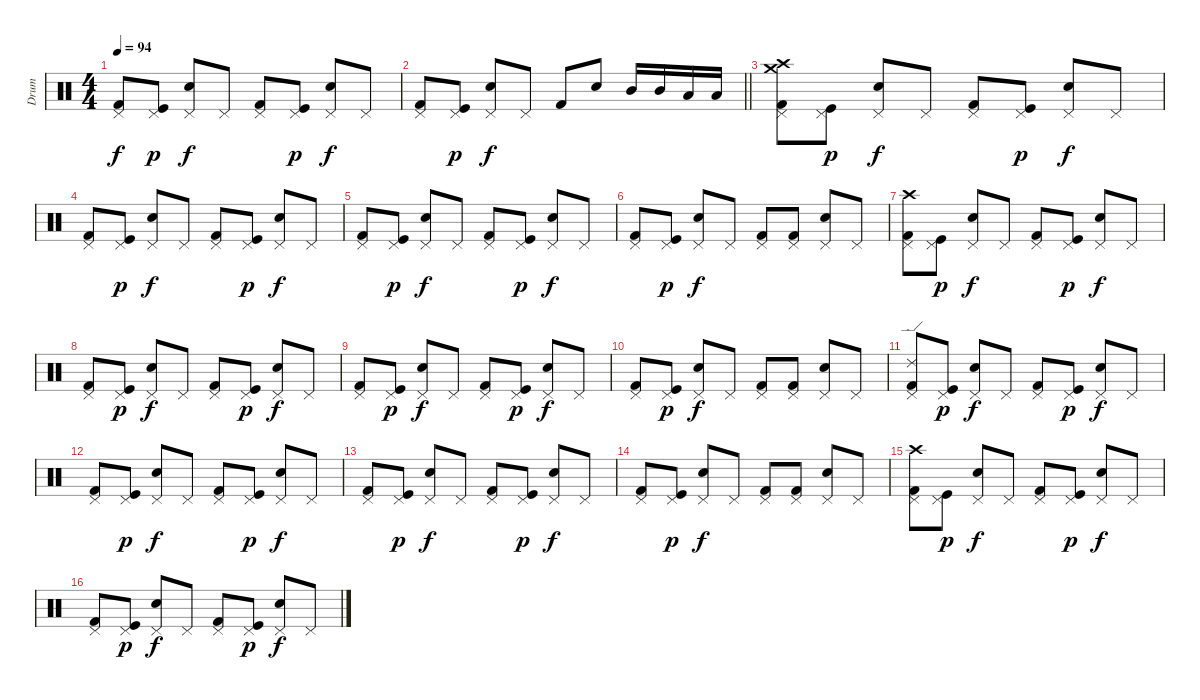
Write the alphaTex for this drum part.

\track ("Drum" "Drum") {instrument percussion}
\staff {score}
\articulation defaults
\ts (4 4)
\tempo 94
\clef neutral
\ks c
("Kick (hit) 2" "Pedal Hi-Hat (hit)").8{dy f} ("Kick (hit)" "Pedal Hi-Hat (hit)").8{dy p} ("Snare (hit) 2" "Pedal Hi-Hat (hit)").8{dy f} "Pedal Hi-Hat (hit)".8 ("Kick (hit) 2" "Pedal Hi-Hat (hit)").8 ("Kick (hit)" "Pedal Hi-Hat (hit)").8{dy p} ("Snare (hit) 2" "Pedal Hi-Hat (hit)").8{dy f} "Pedal Hi-Hat (hit)".8 |
\barLineRight lightlight
("Kick (hit) 2" "Pedal Hi-Hat (hit)").8 ("Kick (hit)" "Pedal Hi-Hat (hit)").8{dy p} ("Snare (hit) 2" "Pedal Hi-Hat (hit)").8{dy f} "Pedal Hi-Hat (hit)".8 "Kick (hit) 2".8 "Snare (hit) 2".8 "Mid Tom (hit)".16 "Mid Tom (hit)".16 "Low Tom (hit)".16 "Low Tom (hit)".16 |
("Crash high (hit)" "Crash medium (hit)" "Kick (hit) 2" "Pedal Hi-Hat (hit)").8 ("Kick (hit)" "Pedal Hi-Hat (hit)").8{dy p} ("Snare (hit) 2" "Pedal Hi-Hat (hit)").8{dy f} "Pedal Hi-Hat (hit)".8 ("Kick (hit) 2" "Pedal Hi-Hat (hit)").8 ("Kick (hit)" "Pedal Hi-Hat (hit)").8{dy p} ("Snare (hit) 2" "Pedal Hi-Hat (hit)").8{dy f} "Pedal Hi-Hat (hit)".8 |
("Kick (hit) 2" "Pedal Hi-Hat (hit)").8 ("Kick (hit)" "Pedal Hi-Hat (hit)").8{dy p} ("Snare (hit) 2" "Pedal Hi-Hat (hit)").8{dy f} "Pedal Hi-Hat (hit)".8 ("Kick (hit) 2" "Pedal Hi-Hat (hit)").8 ("Kick (hit)" "Pedal Hi-Hat (hit)").8{dy p} ("Snare (hit) 2" "Pedal Hi-Hat (hit)").8{dy f} "Pedal Hi-Hat (hit)".8 |
("Kick (hit) 2" "Pedal Hi-Hat (hit)").8 ("Kick (hit)" "Pedal Hi-Hat (hit)").8{dy p} ("Snare (hit) 2" "Pedal Hi-Hat (hit)").8{dy f} "Pedal Hi-Hat (hit)".8 ("Kick (hit) 2" "Pedal Hi-Hat (hit)").8 ("Kick (hit)" "Pedal Hi-Hat (hit)").8{dy p} ("Snare (hit) 2" "Pedal Hi-Hat (hit)").8{dy f} "Pedal Hi-Hat (hit)".8 |
("Kick (hit) 2" "Pedal Hi-Hat (hit)").8 ("Kick (hit)" "Pedal Hi-Hat (hit)").8{dy p} ("Snare (hit) 2" "Pedal Hi-Hat (hit)").8{dy f} "Pedal Hi-Hat (hit)".8 ("Kick (hit) 2" "Pedal Hi-Hat (hit)").8 ("Kick (hit) 2" "Pedal Hi-Hat (hit)").8 ("Snare (hit) 2" "Pedal Hi-Hat (hit)").8 "Pedal Hi-Hat (hit)".8 |
("Crash high (hit)" "Kick (hit) 2" "Pedal Hi-Hat (hit)").8 ("Kick (hit)" "Pedal Hi-Hat (hit)").8{dy p} ("Snare (hit) 2" "Pedal Hi-Hat (hit)").8{dy f} "Pedal Hi-Hat (hit)".8 ("Kick (hit) 2" "Pedal Hi-Hat (hit)").8 ("Kick (hit)" "Pedal Hi-Hat (hit)").8{dy p} ("Snare (hit) 2" "Pedal Hi-Hat (hit)").8{dy f} "Pedal Hi-Hat (hit)".8 |
("Kick (hit) 2" "Pedal Hi-Hat (hit)").8 ("Kick (hit)" "Pedal Hi-Hat (hit)").8{dy p} ("Snare (hit) 2" "Pedal Hi-Hat (hit)").8{dy f} "Pedal Hi-Hat (hit)".8 ("Kick (hit) 2" "Pedal Hi-Hat (hit)").8 ("Kick (hit)" "Pedal Hi-Hat (hit)").8{dy p} ("Snare (hit) 2" "Pedal Hi-Hat (hit)").8{dy f} "Pedal Hi-Hat (hit)".8 |
("Kick (hit) 2" "Pedal Hi-Hat (hit)").8 ("Kick (hit)" "Pedal Hi-Hat (hit)").8{dy p} ("Snare (hit) 2" "Pedal Hi-Hat (hit)").8{dy f} "Pedal Hi-Hat (hit)".8 ("Kick (hit) 2" "Pedal Hi-Hat (hit)").8 ("Kick (hit)" "Pedal Hi-Hat (hit)").8{dy p} ("Snare (hit) 2" "Pedal Hi-Hat (hit)").8{dy f} "Pedal Hi-Hat (hit)".8 |
("Kick (hit) 2" "Pedal Hi-Hat (hit)").8 ("Kick (hit)" "Pedal Hi-Hat (hit)").8{dy p} ("Snare (hit) 2" "Pedal Hi-Hat (hit)").8{dy f} "Pedal Hi-Hat (hit)".8 ("Kick (hit) 2" "Pedal Hi-Hat (hit)").8 ("Kick (hit) 2" "Pedal Hi-Hat (hit)").8 ("Snare (hit) 2" "Pedal Hi-Hat (hit)").8 "Pedal Hi-Hat (hit)".8 |
("Ride (edge) 2" "Kick (hit) 2" "Pedal Hi-Hat (hit)").8 ("Kick (hit)" "Pedal Hi-Hat (hit)").8{dy p} ("Snare (hit) 2" "Pedal Hi-Hat (hit)").8{dy f} "Pedal Hi-Hat (hit)".8 ("Kick (hit) 2" "Pedal Hi-Hat (hit)").8 ("Kick (hit)" "Pedal Hi-Hat (hit)").8{dy p} ("Snare (hit) 2" "Pedal Hi-Hat (hit)").8{dy f} "Pedal Hi-Hat (hit)".8 |
("Kick (hit) 2" "Pedal Hi-Hat (hit)").8 ("Kick (hit)" "Pedal Hi-Hat (hit)").8{dy p} ("Snare (hit) 2" "Pedal Hi-Hat (hit)").8{dy f} "Pedal Hi-Hat (hit)".8 ("Kick (hit) 2" "Pedal Hi-Hat (hit)").8 ("Kick (hit)" "Pedal Hi-Hat (hit)").8{dy p} ("Snare (hit) 2" "Pedal Hi-Hat (hit)").8{dy f} "Pedal Hi-Hat (hit)".8 |
("Kick (hit) 2" "Pedal Hi-Hat (hit)").8 ("Kick (hit)" "Pedal Hi-Hat (hit)").8{dy p} ("Snare (hit) 2" "Pedal Hi-Hat (hit)").8{dy f} "Pedal Hi-Hat (hit)".8 ("Kick (hit) 2" "Pedal Hi-Hat (hit)").8 ("Kick (hit)" "Pedal Hi-Hat (hit)").8{dy p} ("Snare (hit) 2" "Pedal Hi-Hat (hit)").8{dy f} "Pedal Hi-Hat (hit)".8 |
("Kick (hit) 2" "Pedal Hi-Hat (hit)").8 ("Kick (hit)" "Pedal Hi-Hat (hit)").8{dy p} ("Snare (hit) 2" "Pedal Hi-Hat (hit)").8{dy f} "Pedal Hi-Hat (hit)".8 ("Kick (hit) 2" "Pedal Hi-Hat (hit)").8 ("Kick (hit) 2" "Pedal Hi-Hat (hit)").8 ("Snare (hit) 2" "Pedal Hi-Hat (hit)").8 "Pedal Hi-Hat (hit)".8 |
("Crash high (hit)" "Kick (hit) 2" "Pedal Hi-Hat (hit)").8 ("Kick (hit)" "Pedal Hi-Hat (hit)").8{dy p} ("Snare (hit) 2" "Pedal Hi-Hat (hit)").8{dy f} "Pedal Hi-Hat (hit)".8 ("Kick (hit) 2" "Pedal Hi-Hat (hit)").8 ("Kick (hit)" "Pedal Hi-Hat (hit)").8{dy p} ("Snare (hit) 2" "Pedal Hi-Hat (hit)").8{dy f} "Pedal Hi-Hat (hit)".8 |
("Kick (hit) 2" "Pedal Hi-Hat (hit)").8 ("Kick (hit)" "Pedal Hi-Hat (hit)").8{dy p} ("Snare (hit) 2" "Pedal Hi-Hat (hit)").8{dy f} "Pedal Hi-Hat (hit)".8 ("Kick (hit) 2" "Pedal Hi-Hat (hit)").8 ("Kick (hit)" "Pedal Hi-Hat (hit)").8{dy p} ("Snare (hit) 2" "Pedal Hi-Hat (hit)").8{dy f} "Pedal Hi-Hat (hit)".8
